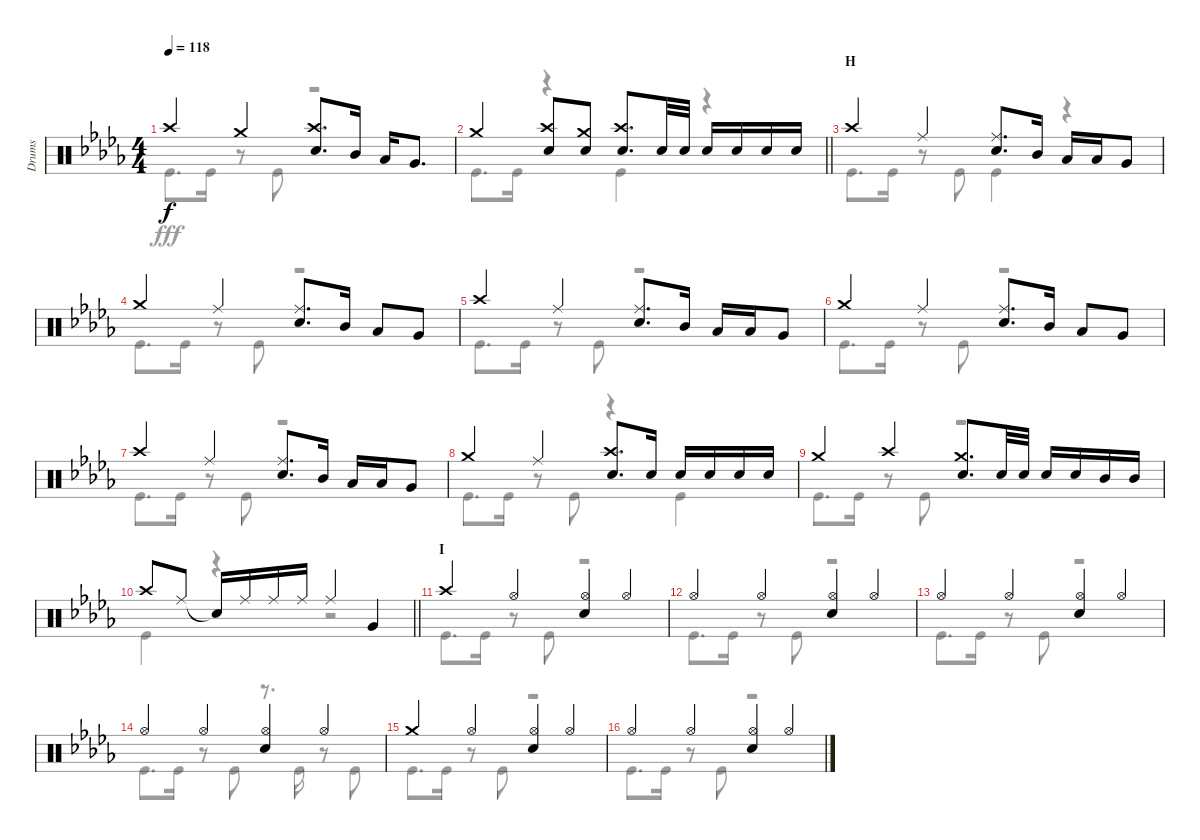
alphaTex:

\track ("Drums" "Drums") {instrument percussion}
\staff {score}
\articulation defaults
\voice
\ts (4 4)
\tempo 118
\clef neutral
\ks db "Crash high (hit)".4{dy f} "Crash medium (hit)".4
("Crash high (hit)" "Snare (hit) 2").8{d} "Mid Tom (hit)".16 "Low Tom (hit)".16 "Very Low Tom (hit)".8{d} |
\barLineRight lightlight "Crash medium (hit)".4
("Crash high (hit)" "Snare (hit) 2").8 ("Crash medium (hit)" "Snare (hit) 2").8 ("Crash high (hit)" "Snare (hit) 2").8{d} "Snare (hit) 2".32 "Snare (hit) 2".32 "Snare (hit) 2".16 "Snare (hit) 2".16 "Snare (hit) 2".16 "Snare (hit) 2".16 |
\section ("" "H")
"Crash high (hit)".4 "Ride (middle)".4 ("Ride (middle)" "Snare (hit) 2").8{d} "Mid Tom (hit)".16 "Low Tom (hit)".16 "Low Tom (hit)".16 "Very Low Tom (hit)".8 |
"Crash medium (hit)".4 "Ride (middle)".4 ("Ride (middle)" "Snare (hit) 2").8{d} "Mid Tom (hit)".16 "Low Tom (hit)".8 "Very Low Tom (hit)".8 |
"Crash high (hit)".4 "Ride (middle)".4 ("Ride (middle)" "Snare (hit) 2").8{d} "Mid Tom (hit)".16 "Low Tom (hit)".16 "Low Tom (hit)".16 "Very Low Tom (hit)".8 |
"Crash medium (hit)".4 "Ride (middle)".4 ("Ride (middle)" "Snare (hit) 2").8{d} "Mid Tom (hit)".16 "Low Tom (hit)".8 "Very Low Tom (hit)".8 |
"Crash high (hit)".4 "Ride (middle)".4 ("Ride (middle)" "Snare (hit) 2").8{d} "Mid Tom (hit)".16 "Low Tom (hit)".16 "Low Tom (hit)".16 "Very Low Tom (hit)".8 |
"Crash medium (hit)".4 "Ride (middle)".4 ("Crash high (hit)" "Snare (hit) 2").8{d} "Snare (hit) 2".16 "Snare (hit) 2".16 "Snare (hit) 2".16 "Snare (hit) 2".16 "Snare (hit) 2".16 |
"Crash medium (hit)".4 "Crash high (hit)".4 ("Crash medium (hit)" "Snare (hit) 2").8{d} "Snare (hit) 2".32 "Snare (hit) 2".32 "Snare (hit) 2".16 "Snare (hit) 2".16 "Mid Tom (hit)".16 "Mid Tom (hit)".16 |
\barLineRight lightlight "Crash high (hit)".8 "Ride (middle)".8 "Snare (hit)"{t}.16 "Ride (middle)".16 "Ride (middle)".16 "Ride (middle)".16 "Ride (middle)".4 "Very Low Tom (hit)".4
|
\section ("" "I")
"Crash high (hit)".4 "Hi-Hat (open)".4 ("Hi-Hat (open)" "Snare (hit) 2").4 "Hi-Hat (open)".4 |
"Hi-Hat (open)".4 "Hi-Hat (open)".4 ("Hi-Hat (open)" "Snare (hit) 2").4 "Hi-Hat (open)".4 |
"Hi-Hat (open)".4 "Hi-Hat (open)".4 ("Hi-Hat (open)" "Snare (hit) 2").4 "Hi-Hat (open)".4 |
"Hi-Hat (open)".4 "Hi-Hat (open)".4 ("Hi-Hat (open)" "Snare (hit) 2").4 "Hi-Hat (open)".4 |
"Crash medium (hit)".4 "Hi-Hat (open)".4 ("Hi-Hat (open)" "Snare (hit) 2").4 "Hi-Hat (open)".4 |
"Hi-Hat (open)".4 "Hi-Hat (open)".4 ("Hi-Hat (open)" "Snare (hit) 2").4 "Hi-Hat (open)".4
\voice
\clef neutral
\ottava regular
\simile none
\ks db "Kick (hit)".8{d dy fff} "Kick (hit)".16
r.8 "Kick (hit)".8 r.2 |
\barLineRight lightlight "Kick (hit)".8{d} "Kick (hit)".16
r.4 "Kick (hit)".4 r.4 |
"Kick (hit)".8{d} "Kick (hit)".16 r.8 "Kick (hit)".8 "Kick (hit)".4 r.4 |
"Kick (hit)".8{d} "Kick (hit)".16 r.8 "Kick (hit)".8 r.2 |
"Kick (hit)".8{d} "Kick (hit)".16 r.8 "Kick (hit)".8 r.2 |
"Kick (hit)".8{d} "Kick (hit)".16 r.8 "Kick (hit)".8 r.2 |
"Kick (hit)".8{d} "Kick (hit)".16 r.8 "Kick (hit)".8 r.2 |
"Kick (hit)".8{d} "Kick (hit)".16 r.8 "Kick (hit)".8 r.4 "Kick (hit)".4 |
"Kick (hit)".8{d} "Kick (hit)".16 r.8 "Kick (hit)".8 r.2 |
\barLineRight lightlight "Kick (hit)".4
r.4 r.2 |
"Kick (hit)".8{d} "Kick (hit)".16 r.8 "Kick (hit)".8 r.2 |
"Kick (hit)".8{d} "Kick (hit)".16 r.8 "Kick (hit)".8 r.2 |
"Kick (hit)".8{d} "Kick (hit)".16 r.8 "Kick (hit)".8 r.2 |
"Kick (hit)".8{d} "Kick (hit)".16 r.8 "Kick (hit)".8 r.8{d} "Kick (hit)".16 r.8 "Kick (hit)".8 |
"Kick (hit)".8{d} "Kick (hit)".16 r.8 "Kick (hit)".8 r.2 |
"Kick (hit)".8{d} "Kick (hit)".16 r.8 "Kick (hit)".8 r.2
